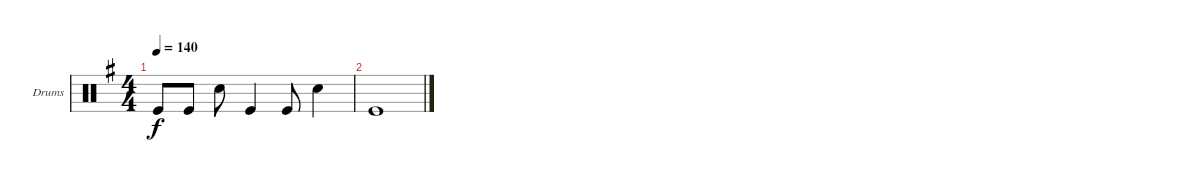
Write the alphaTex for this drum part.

\bracketExtendMode groupsimilarinstruments
\firstSystemTrackNameOrientation horizontal
\otherSystemsTrackNameOrientation horizontal
\track ("Fabrizio Moretti" "Drums") {instrument percussion}
\staff {score}
\articulation defaults
\ts (4 4)
\tempo 140
\clef neutral
\ks g "Kick (hit)".8{dy f} "Kick (hit)".8 "Snare (hit) 2".8 "Kick (hit)".4 "Kick (hit)".8 "Snare (hit) 2".4
|
"Kick (hit)".1
